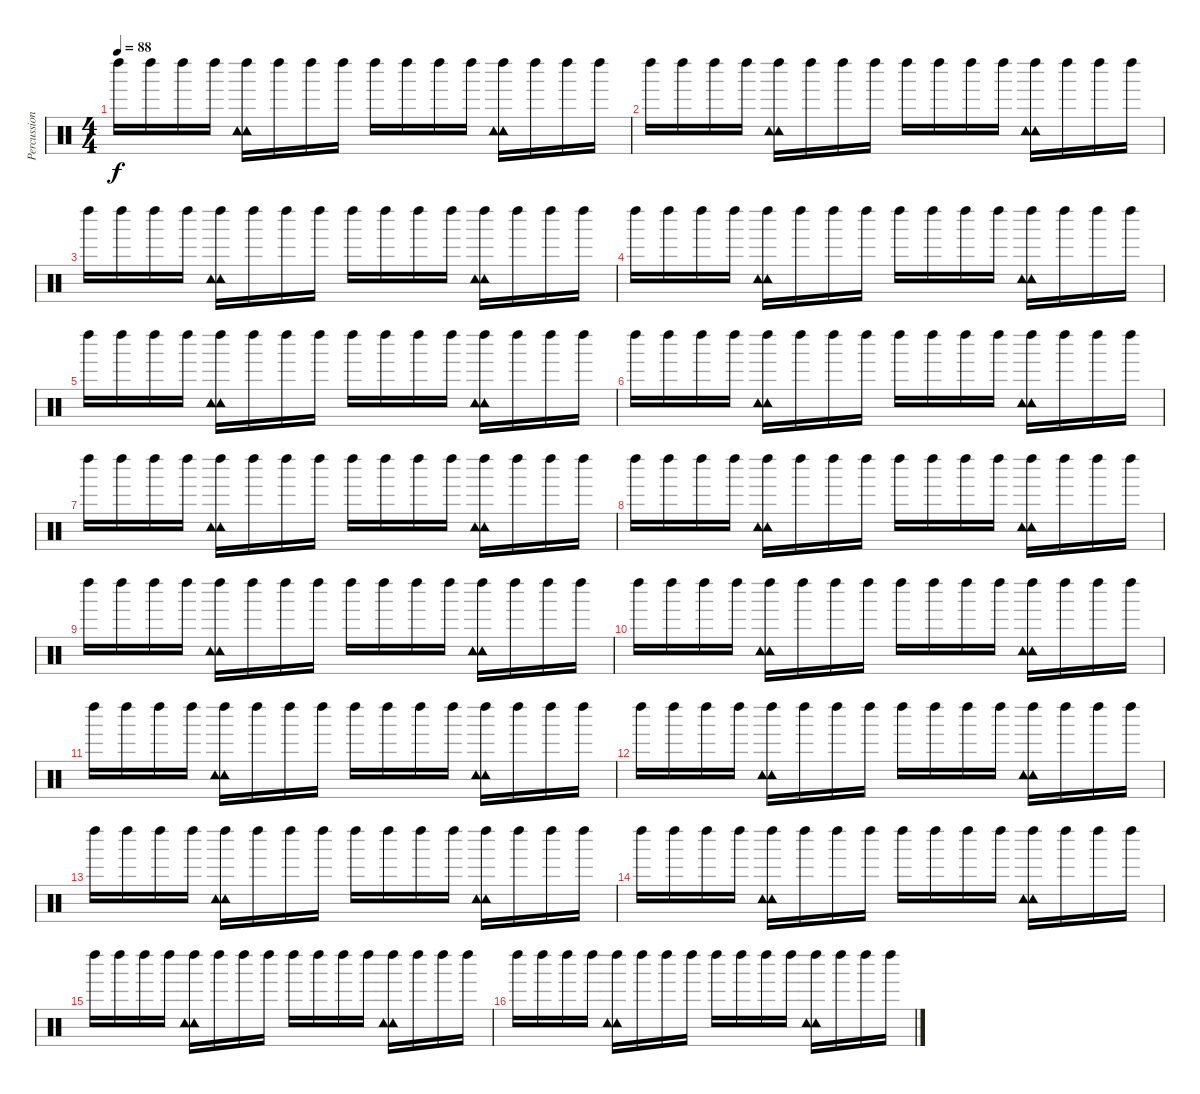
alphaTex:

\track ("Percussioni" "Percussion") {instrument percussion}
\staff {score}
\articulation defaults
\ts (4 4)
\tempo 88
\clef neutral
\ks c "Left Maraca (hit)".16{dy f} "Left Maraca (hit)".16 "Left Maraca (hit)".16 "Left Maraca (hit)".16
("Left Maraca (hit)" "Tambourine (hit)" "Tambourine (hit)").16 "Left Maraca (hit)".16 "Left Maraca (hit)".16 "Left Maraca (hit)".16 "Left Maraca (hit)".16 "Left Maraca (hit)".16 "Left Maraca (hit)".16 "Left Maraca (hit)".16 ("Left Maraca (hit)" "Tambourine (hit)" "Tambourine (hit)").16 "Left Maraca (hit)".16 "Left Maraca (hit)".16 "Left Maraca (hit)".16 |
"Left Maraca (hit)".16 "Left Maraca (hit)".16 "Left Maraca (hit)".16 "Left Maraca (hit)".16 ("Left Maraca (hit)" "Tambourine (hit)" "Tambourine (hit)").16 "Left Maraca (hit)".16 "Left Maraca (hit)".16 "Left Maraca (hit)".16 "Left Maraca (hit)".16 "Left Maraca (hit)".16 "Left Maraca (hit)".16 "Left Maraca (hit)".16 ("Left Maraca (hit)" "Tambourine (hit)" "Tambourine (hit)").16 "Left Maraca (hit)".16 "Left Maraca (hit)".16 "Left Maraca (hit)".16 |
"Left Maraca (hit)".16 "Left Maraca (hit)".16 "Left Maraca (hit)".16 "Left Maraca (hit)".16 ("Left Maraca (hit)" "Tambourine (hit)" "Tambourine (hit)").16 "Left Maraca (hit)".16 "Left Maraca (hit)".16 "Left Maraca (hit)".16 "Left Maraca (hit)".16 "Left Maraca (hit)".16 "Left Maraca (hit)".16 "Left Maraca (hit)".16 ("Left Maraca (hit)" "Tambourine (hit)" "Tambourine (hit)").16 "Left Maraca (hit)".16 "Left Maraca (hit)".16 "Left Maraca (hit)".16 |
"Left Maraca (hit)".16 "Left Maraca (hit)".16 "Left Maraca (hit)".16 "Left Maraca (hit)".16 ("Left Maraca (hit)" "Tambourine (hit)" "Tambourine (hit)").16 "Left Maraca (hit)".16 "Left Maraca (hit)".16 "Left Maraca (hit)".16 "Left Maraca (hit)".16 "Left Maraca (hit)".16 "Left Maraca (hit)".16 "Left Maraca (hit)".16 ("Left Maraca (hit)" "Tambourine (hit)" "Tambourine (hit)").16 "Left Maraca (hit)".16 "Left Maraca (hit)".16 "Left Maraca (hit)".16 |
"Left Maraca (hit)".16 "Left Maraca (hit)".16 "Left Maraca (hit)".16 "Left Maraca (hit)".16 ("Left Maraca (hit)" "Tambourine (hit)" "Tambourine (hit)").16 "Left Maraca (hit)".16 "Left Maraca (hit)".16 "Left Maraca (hit)".16 "Left Maraca (hit)".16 "Left Maraca (hit)".16 "Left Maraca (hit)".16 "Left Maraca (hit)".16 ("Left Maraca (hit)" "Tambourine (hit)" "Tambourine (hit)").16 "Left Maraca (hit)".16 "Left Maraca (hit)".16 "Left Maraca (hit)".16 |
"Left Maraca (hit)".16 "Left Maraca (hit)".16 "Left Maraca (hit)".16 "Left Maraca (hit)".16 ("Left Maraca (hit)" "Tambourine (hit)" "Tambourine (hit)").16 "Left Maraca (hit)".16 "Left Maraca (hit)".16 "Left Maraca (hit)".16 "Left Maraca (hit)".16 "Left Maraca (hit)".16 "Left Maraca (hit)".16 "Left Maraca (hit)".16 ("Left Maraca (hit)" "Tambourine (hit)" "Tambourine (hit)").16 "Left Maraca (hit)".16 "Left Maraca (hit)".16 "Left Maraca (hit)".16 |
"Left Maraca (hit)".16 "Left Maraca (hit)".16 "Left Maraca (hit)".16 "Left Maraca (hit)".16 ("Left Maraca (hit)" "Tambourine (hit)" "Tambourine (hit)").16 "Left Maraca (hit)".16 "Left Maraca (hit)".16 "Left Maraca (hit)".16 "Left Maraca (hit)".16 "Left Maraca (hit)".16 "Left Maraca (hit)".16 "Left Maraca (hit)".16 ("Left Maraca (hit)" "Tambourine (hit)" "Tambourine (hit)").16 "Left Maraca (hit)".16 "Left Maraca (hit)".16 "Left Maraca (hit)".16 |
"Left Maraca (hit)".16 "Left Maraca (hit)".16 "Left Maraca (hit)".16 "Left Maraca (hit)".16 ("Left Maraca (hit)" "Tambourine (hit)" "Tambourine (hit)").16 "Left Maraca (hit)".16 "Left Maraca (hit)".16 "Left Maraca (hit)".16 "Left Maraca (hit)".16 "Left Maraca (hit)".16 "Left Maraca (hit)".16 "Left Maraca (hit)".16 ("Left Maraca (hit)" "Tambourine (hit)" "Tambourine (hit)").16 "Left Maraca (hit)".16 "Left Maraca (hit)".16 "Left Maraca (hit)".16 |
"Left Maraca (hit)".16 "Left Maraca (hit)".16 "Left Maraca (hit)".16 "Left Maraca (hit)".16 ("Left Maraca (hit)" "Tambourine (hit)" "Tambourine (hit)").16 "Left Maraca (hit)".16 "Left Maraca (hit)".16 "Left Maraca (hit)".16 "Left Maraca (hit)".16 "Left Maraca (hit)".16 "Left Maraca (hit)".16 "Left Maraca (hit)".16 ("Left Maraca (hit)" "Tambourine (hit)" "Tambourine (hit)").16 "Left Maraca (hit)".16 "Left Maraca (hit)".16 "Left Maraca (hit)".16 |
"Left Maraca (hit)".16 "Left Maraca (hit)".16 "Left Maraca (hit)".16 "Left Maraca (hit)".16 ("Left Maraca (hit)" "Tambourine (hit)" "Tambourine (hit)").16 "Left Maraca (hit)".16 "Left Maraca (hit)".16 "Left Maraca (hit)".16 "Left Maraca (hit)".16 "Left Maraca (hit)".16 "Left Maraca (hit)".16 "Left Maraca (hit)".16 ("Left Maraca (hit)" "Tambourine (hit)" "Tambourine (hit)").16 "Left Maraca (hit)".16 "Left Maraca (hit)".16 "Left Maraca (hit)".16 |
"Left Maraca (hit)".16 "Left Maraca (hit)".16 "Left Maraca (hit)".16 "Left Maraca (hit)".16 ("Left Maraca (hit)" "Tambourine (hit)" "Tambourine (hit)").16 "Left Maraca (hit)".16 "Left Maraca (hit)".16 "Left Maraca (hit)".16 "Left Maraca (hit)".16 "Left Maraca (hit)".16 "Left Maraca (hit)".16 "Left Maraca (hit)".16 ("Left Maraca (hit)" "Tambourine (hit)" "Tambourine (hit)").16 "Left Maraca (hit)".16 "Left Maraca (hit)".16 "Left Maraca (hit)".16 |
"Left Maraca (hit)".16 "Left Maraca (hit)".16 "Left Maraca (hit)".16 "Left Maraca (hit)".16 ("Left Maraca (hit)" "Tambourine (hit)" "Tambourine (hit)").16 "Left Maraca (hit)".16 "Left Maraca (hit)".16 "Left Maraca (hit)".16 "Left Maraca (hit)".16 "Left Maraca (hit)".16 "Left Maraca (hit)".16 "Left Maraca (hit)".16 ("Left Maraca (hit)" "Tambourine (hit)" "Tambourine (hit)").16 "Left Maraca (hit)".16 "Left Maraca (hit)".16 "Left Maraca (hit)".16 |
"Left Maraca (hit)".16 "Left Maraca (hit)".16 "Left Maraca (hit)".16 "Left Maraca (hit)".16 ("Left Maraca (hit)" "Tambourine (hit)" "Tambourine (hit)").16 "Left Maraca (hit)".16 "Left Maraca (hit)".16 "Left Maraca (hit)".16 "Left Maraca (hit)".16 "Left Maraca (hit)".16 "Left Maraca (hit)".16 "Left Maraca (hit)".16 ("Left Maraca (hit)" "Tambourine (hit)" "Tambourine (hit)").16 "Left Maraca (hit)".16 "Left Maraca (hit)".16 "Left Maraca (hit)".16 |
"Left Maraca (hit)".16 "Left Maraca (hit)".16 "Left Maraca (hit)".16 "Left Maraca (hit)".16 ("Left Maraca (hit)" "Tambourine (hit)" "Tambourine (hit)").16 "Left Maraca (hit)".16 "Left Maraca (hit)".16 "Left Maraca (hit)".16 "Left Maraca (hit)".16 "Left Maraca (hit)".16 "Left Maraca (hit)".16 "Left Maraca (hit)".16 ("Left Maraca (hit)" "Tambourine (hit)" "Tambourine (hit)").16 "Left Maraca (hit)".16 "Left Maraca (hit)".16 "Left Maraca (hit)".16 |
"Left Maraca (hit)".16 "Left Maraca (hit)".16 "Left Maraca (hit)".16 "Left Maraca (hit)".16 ("Left Maraca (hit)" "Tambourine (hit)" "Tambourine (hit)").16 "Left Maraca (hit)".16 "Left Maraca (hit)".16 "Left Maraca (hit)".16 "Left Maraca (hit)".16 "Left Maraca (hit)".16 "Left Maraca (hit)".16 "Left Maraca (hit)".16 ("Left Maraca (hit)" "Tambourine (hit)" "Tambourine (hit)").16 "Left Maraca (hit)".16 "Left Maraca (hit)".16 "Left Maraca (hit)".16 |
"Left Maraca (hit)".16 "Left Maraca (hit)".16 "Left Maraca (hit)".16 "Left Maraca (hit)".16 ("Left Maraca (hit)" "Tambourine (hit)" "Tambourine (hit)").16 "Left Maraca (hit)".16 "Left Maraca (hit)".16 "Left Maraca (hit)".16 "Left Maraca (hit)".16 "Left Maraca (hit)".16 "Left Maraca (hit)".16 "Left Maraca (hit)".16 ("Left Maraca (hit)" "Tambourine (hit)" "Tambourine (hit)").16 "Left Maraca (hit)".16 "Left Maraca (hit)".16 "Left Maraca (hit)".16
